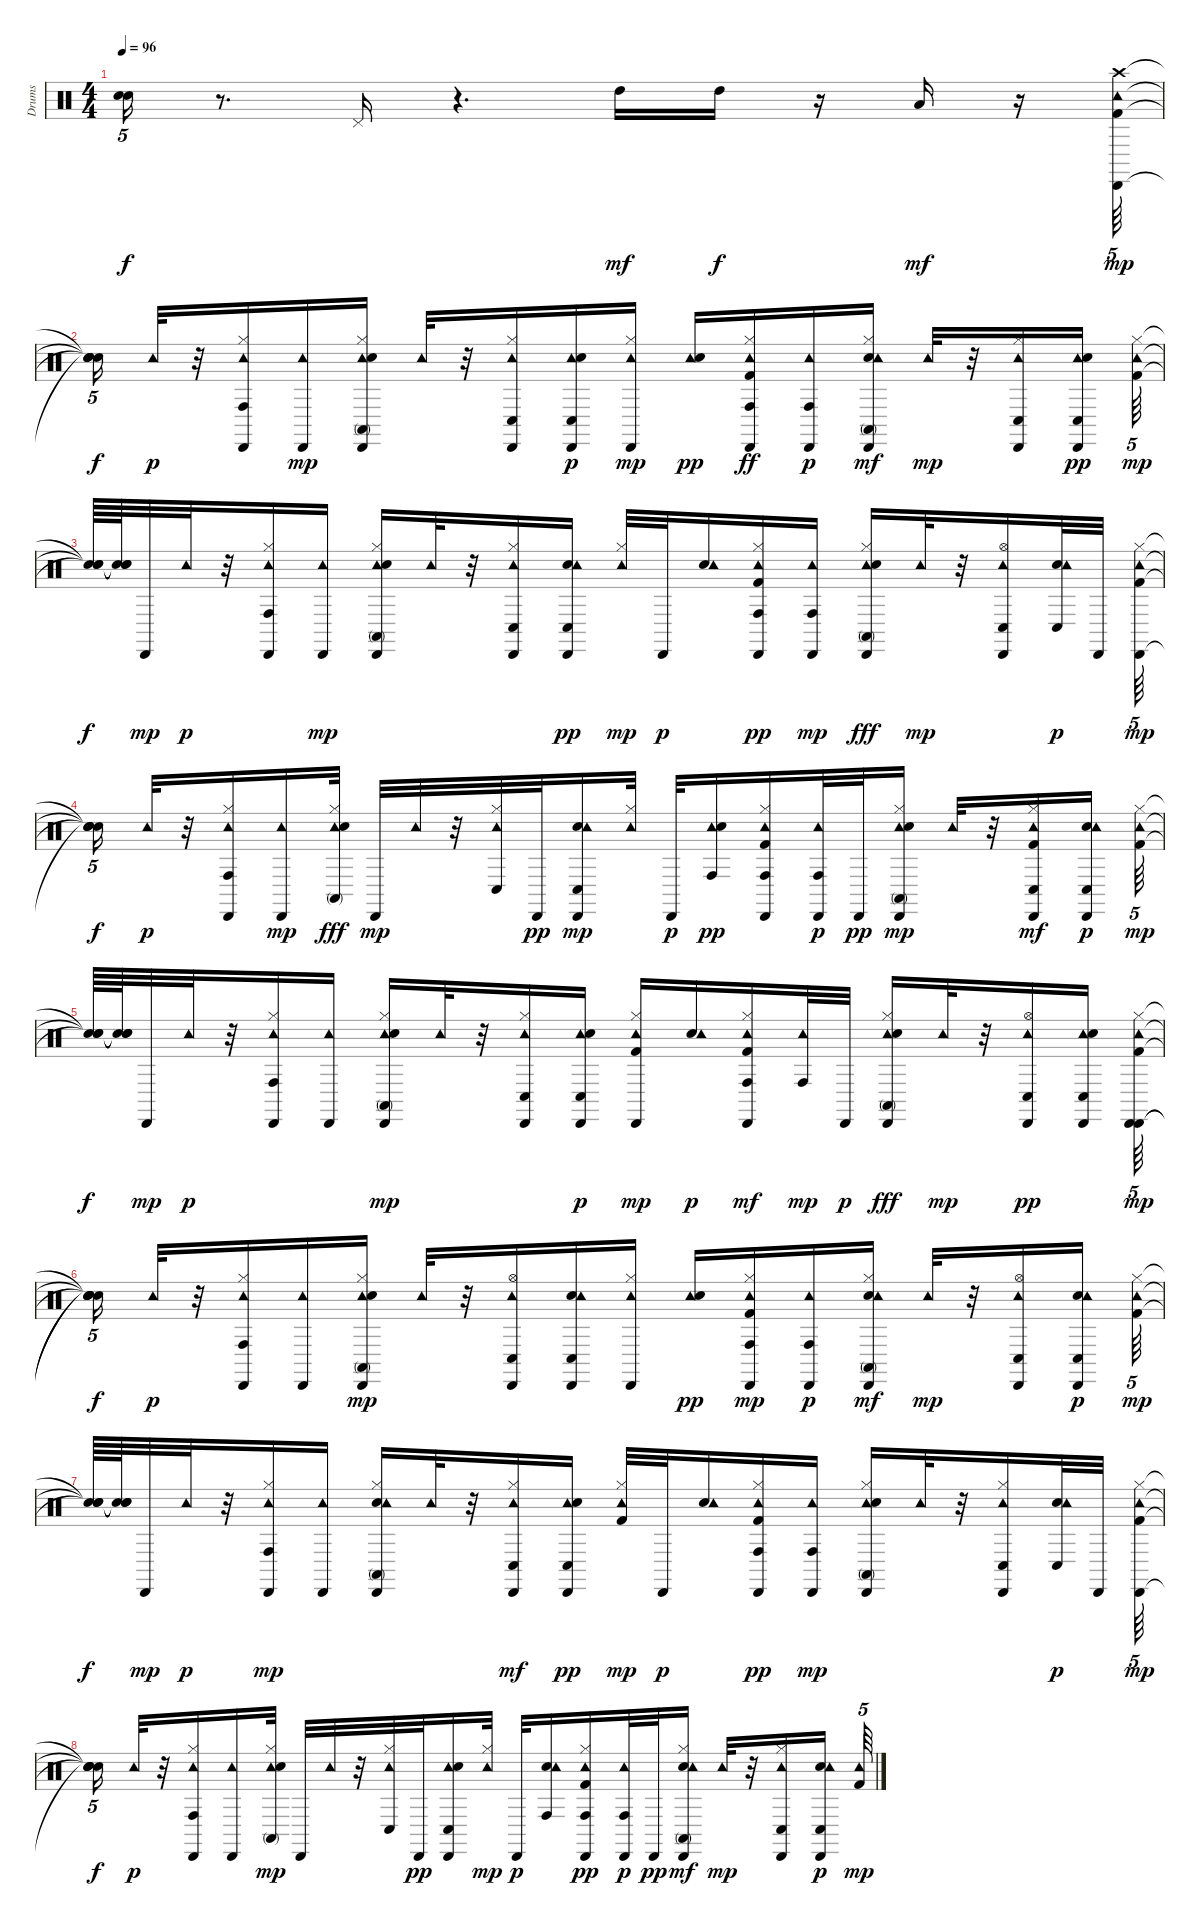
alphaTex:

\track ("Drums" "Drums") {instrument percussion}
\staff {score}
\articulation defaults
\ts (4 4)
\tempo 96
\clef neutral
\ks c
("Snare (hit)"{t} "Snare (hit)"{t}).16{tu (5 4) dy f} r.8{d} "Pedal Hi-Hat (hit)".16 r.4{d} "High Tom (hit)".16{dy mf} "High Tom (hit)".16{dy f} r.16 "Low Tom (hit)".16{dy mf} r.16 ("Kick (hit) 2" "Cabasa (hit)" "Tambourine (hit)" "Crash high (hit)").64{tu (5 4) dy mp} |
("Snare (hit)"{t} "Snare (hit)"{t} "Snare (hit)"{t} "Snare (hit)"{t}).16{tu (5 4) dy f} "Tambourine (hit)".32{dy p} r.32 ("Conga high (hit)" "Tambourine (hit)" "Hi-Hat (closed)" "Cabasa (hit)").16 ("Cabasa (hit)" "Tambourine (hit)").16{dy mp} ("Hi-Hat (closed)" "Tambourine (hit)" "Snare (hit) 2" "Cabasa (hit)" "Conga high (mute)").16 "Tambourine (hit)".32 r.32 ("Cabasa (hit)" "Tambourine (hit)" "Hi-Hat (closed)" "Conga low (hit)").16 ("Cabasa (hit)" "Tambourine (hit)" "Electric Snare (hit)" "Conga low (hit)").16{dy p} ("Cabasa (hit)" "Tambourine (hit)" "Hi-Hat (closed)").16{dy mp} ("Tambourine (hit)" "Electric Snare (hit)").16{dy pp} ("Cabasa (hit)" "Tambourine (hit)" "Hi-Hat (closed)" "Conga high (hit)" "Kick (hit) 2").16{dy ff} ("Conga high (hit)" "Tambourine (hit)" "Cabasa (hit)").16{dy p} ("Hi-Hat (closed)" "Conga high (mute)" "Cabasa (hit)" "Snare (hit) 2" "Tambourine (hit)").16{dy mf} "Tambourine (hit)".32{dy mp} r.32 ("Conga low (hit)" "Cabasa (hit)" "Hi-Hat (closed)" "Tambourine (hit)").16 ("Cabasa (hit)" "Conga low (hit)" "Tambourine (hit)" "Electric Snare (hit)").16{dy pp beam splitsecondary} ("Hi-Hat (closed)" "Kick (hit) 2" "Tambourine (hit)").64{tu (5 4) dy mp} |
("Snare (hit)"{t} "Snare (hit)"{t} "Snare (hit)"{t}).64{dy f} ("Snare (hit)"{t} "Snare (hit)"{t} "Snare (hit)"{t}).64 "Cabasa (hit)".32{dy mp} "Tambourine (hit)".32{dy p} r.32 ("Cabasa (hit)" "Hi-Hat (closed)" "Tambourine (hit)" "Conga high (hit)").16 ("Cabasa (hit)" "Tambourine (hit)").16{dy mp} ("Tambourine (hit)" "Snare (hit) 2" "Hi-Hat (closed)" "Conga high (mute)" "Cabasa (hit)").16 "Tambourine (hit)".32 r.32 ("Cabasa (hit)" "Hi-Hat (closed)" "Tambourine (hit)" "Conga low (hit)").16 ("Electric Snare (hit)" "Tambourine (hit)" "Conga low (hit)" "Cabasa (hit)").16{dy pp} ("Hi-Hat (closed)" "Tambourine (hit)").32{dy mp} "Cabasa (hit)".32{dy p} ("Electric Snare (hit)" "Tambourine (hit)").16 ("Tambourine (hit)" "Conga high (hit)" "Kick (hit) 2" "Hi-Hat (closed)" "Cabasa (hit)").16{dy pp} ("Cabasa (hit)" "Tambourine (hit)" "Conga high (hit)").16{dy mp} ("Cabasa (hit)" "Tambourine (hit)" "Conga high (mute)" "Snare (hit) 2" "Hi-Hat (closed)").16{dy fff} "Tambourine (hit)".32{dy mp} r.32 ("Cabasa (hit)" "Tambourine (hit)" "Hi-Hat (open)" "Conga low (hit)").16 ("Electric Snare (hit)" "Tambourine (hit)" "Conga low (hit)").32{dy p} "Cabasa (hit)".32 ("Cabasa (hit)" "Kick (hit) 2" "Tambourine (hit)" "Hi-Hat (closed)").64{tu (5 4) dy mp} |
("Snare (hit)"{t} "Snare (hit)"{t} "Snare (hit)"{t} "Snare (hit)"{t}).16{tu (5 4) dy f} "Tambourine (hit)".32{dy p} r.32 ("Tambourine (hit)" "Hi-Hat (closed)" "Conga high (hit)" "Cabasa (hit)").16 ("Cabasa (hit)" "Tambourine (hit)").16{dy mp} ("Conga high (mute)" "Hi-Hat (closed)" "Tambourine (hit)" "Snare (hit) 2").32{dy fff} "Cabasa (hit)".32{dy mp} "Tambourine (hit)".32 r.32 ("Tambourine (hit)" "Hi-Hat (closed)" "Conga low (hit)").32 "Cabasa (hit)".32{dy pp} ("Conga low (hit)" "Electric Snare (hit)" "Cabasa (hit)" "Tambourine (hit)").16{dy mp} ("Hi-Hat (closed)" "Tambourine (hit)").32 "Cabasa (hit)".32{dy p} ("Tambourine (hit)" "Conga high (hit)" "Electric Snare (hit)").16{dy pp} ("Conga high (hit)" "Hi-Hat (closed)" "Kick (hit) 2" "Tambourine (hit)" "Cabasa (hit)").16 ("Tambourine (hit)" "Conga high (hit)" "Cabasa (hit)").32{dy p} "Cabasa (hit)".32{dy pp} ("Cabasa (hit)" "Tambourine (hit)" "Snare (hit) 2" "Hi-Hat (closed)" "Conga high (mute)").16{dy mp} "Tambourine (hit)".32 r.32 ("Cabasa (hit)" "Tambourine (hit)" "Conga low (hit)" "Kick (hit) 2" "Hi-Hat (closed)").16{dy mf} ("Electric Snare (hit)" "Tambourine (hit)" "Cabasa (hit)" "Conga low (hit)").16{dy p beam splitsecondary} ("Hi-Hat (closed)" "Kick (hit) 2" "Tambourine (hit)").64{tu (5 4) dy mp} |
("Snare (hit)"{t} "Snare (hit)"{t} "Snare (hit)"{t}).64{dy f} ("Snare (hit)"{t} "Snare (hit)"{t} "Snare (hit)"{t}).64 "Cabasa (hit)".32{dy mp} "Tambourine (hit)".32{dy p} r.32 ("Cabasa (hit)" "Tambourine (hit)" "Hi-Hat (closed)" "Conga high (hit)").16 ("Tambourine (hit)" "Cabasa (hit)").16 ("Tambourine (hit)" "Snare (hit) 2" "Hi-Hat (closed)" "Conga high (mute)" "Cabasa (hit)").16{dy mp} "Tambourine (hit)".32 r.32 ("Cabasa (hit)" "Hi-Hat (closed)" "Tambourine (hit)" "Conga low (hit)").16 ("Cabasa (hit)" "Tambourine (hit)" "Electric Snare (hit)" "Conga low (hit)").16{dy p} ("Cabasa (hit)" "Hi-Hat (closed)" "Kick (hit) 2" "Tambourine (hit)").16{dy mp} ("Electric Snare (hit)" "Tambourine (hit)").16{dy p} ("Conga high (hit)" "Tambourine (hit)" "Kick (hit) 2" "Cabasa (hit)" "Hi-Hat (closed)").16{dy mf} ("Tambourine (hit)" "Conga high (hit)").32{dy mp} "Cabasa (hit)".32{dy p} ("Cabasa (hit)" "Tambourine (hit)" "Hi-Hat (closed)" "Conga high (mute)" "Snare (hit) 2").16{dy fff} "Tambourine (hit)".32{dy mp} r.32 ("Conga low (hit)" "Tambourine (hit)" "Hi-Hat (open)" "Cabasa (hit)").16{dy pp} ("Tambourine (hit)" "Cabasa (hit)" "Conga low (hit)" "Electric Snare (hit)").16 ("Cabasa (hit)" "Hi-Hat (closed)" "Kick (hit) 2" "Cabasa (hit)" "Tambourine (hit)").64{tu (5 4) dy mp} |
("Snare (hit)"{t} "Snare (hit)"{t} "Snare (hit)"{t} "Snare (hit)"{t} "Snare (hit)"{t}).16{tu (5 4) dy f} "Tambourine (hit)".32{dy p} r.32 ("Hi-Hat (closed)" "Conga high (hit)" "Tambourine (hit)" "Cabasa (hit)").16 ("Tambourine (hit)" "Cabasa (hit)").16 ("Tambourine (hit)" "Hi-Hat (closed)" "Snare (hit) 2" "Cabasa (hit)" "Conga high (mute)").16{dy mp} "Tambourine (hit)".32 r.32 ("Cabasa (hit)" "Tambourine (hit)" "Hi-Hat (open)" "Conga low (hit)").16 ("Cabasa (hit)" "Conga low (hit)" "Electric Snare (hit)" "Tambourine (hit)").16 ("Cabasa (hit)" "Hi-Hat (closed)" "Tambourine (hit)").16 ("Tambourine (hit)" "Electric Snare (hit)").16{dy pp} ("Cabasa (hit)" "Conga high (hit)" "Hi-Hat (closed)" "Kick (hit) 2" "Tambourine (hit)").16{dy mp} ("Tambourine (hit)" "Conga high (hit)" "Cabasa (hit)").16{dy p} ("Hi-Hat (closed)" "Cabasa (hit)" "Snare (hit) 2" "Conga high (mute)" "Tambourine (hit)").16{dy mf} "Tambourine (hit)".32{dy mp} r.32 ("Cabasa (hit)" "Hi-Hat (open)" "Tambourine (hit)" "Conga low (hit)").16 ("Cabasa (hit)" "Electric Snare (hit)" "Tambourine (hit)" "Conga low (hit)").16{dy p beam splitsecondary} ("Hi-Hat (closed)" "Kick (hit) 2" "Tambourine (hit)").64{tu (5 4) dy mp} |
("Snare (hit)"{t} "Snare (hit)"{t} "Snare (hit)"{t}).64{dy f} ("Snare (hit)"{t} "Snare (hit)"{t} "Snare (hit)"{t}).64 "Cabasa (hit)".32{dy mp} "Tambourine (hit)".32{dy p} r.32 ("Cabasa (hit)" "Conga high (hit)" "Hi-Hat (closed)" "Tambourine (hit)").16{dy mp} ("Cabasa (hit)" "Tambourine (hit)").16 ("Hi-Hat (closed)" "Snare (hit) 2" "Conga high (mute)" "Tambourine (hit)" "Cabasa (hit)").16 "Tambourine (hit)".32 r.32 ("Cabasa (hit)" "Tambourine (hit)" "Conga low (hit)" "Hi-Hat (closed)").16{dy mf} ("Tambourine (hit)" "Conga low (hit)" "Electric Snare (hit)" "Cabasa (hit)").16{dy pp} ("Kick (hit) 2" "Tambourine (hit)" "Hi-Hat (closed)").32{dy mp} "Cabasa (hit)".32{dy p} ("Electric Snare (hit)" "Tambourine (hit)").16 ("Conga high (hit)" "Kick (hit) 2" "Hi-Hat (closed)" "Tambourine (hit)" "Cabasa (hit)").16{dy pp} ("Cabasa (hit)" "Tambourine (hit)" "Conga high (hit)").16{dy mp} ("Cabasa (hit)" "Tambourine (hit)" "Hi-Hat (closed)" "Snare (hit) 2" "Conga high (mute)").16 "Tambourine (hit)".32 r.32 ("Cabasa (hit)" "Hi-Hat (closed)" "Tambourine (hit)" "Conga low (hit)").16 ("Electric Snare (hit)" "Tambourine (hit)" "Conga low (hit)").32{dy p} "Cabasa (hit)".32 ("Cabasa (hit)" "Hi-Hat (closed)" "Kick (hit) 2" "Tambourine (hit)").64{tu (5 4) dy mp} |
("Snare (hit)"{t} "Snare (hit)"{t} "Snare (hit)"{t} "Snare (hit)"{t}).16{tu (5 4) dy f} "Tambourine (hit)".32{dy p} r.32 ("Hi-Hat (closed)" "Conga high (hit)" "Tambourine (hit)" "Cabasa (hit)").16 ("Tambourine (hit)" "Cabasa (hit)").16 ("Tambourine (hit)" "Hi-Hat (closed)" "Snare (hit) 2" "Conga high (mute)").32{dy mp} "Cabasa (hit)".32 "Tambourine (hit)".32 r.32 ("Conga low (hit)" "Hi-Hat (closed)" "Tambourine (hit)").32 "Cabasa (hit)".32{dy pp} ("Tambourine (hit)" "Conga low (hit)" "Electric Snare (hit)" "Cabasa (hit)").16 ("Hi-Hat (closed)" "Tambourine (hit)").32{dy mp} "Cabasa (hit)".32{dy p} ("Conga high (hit)" "Electric Snare (hit)" "Tambourine (hit)").16 ("Tambourine (hit)" "Kick (hit) 2" "Conga high (hit)" "Hi-Hat (closed)" "Cabasa (hit)").16{dy pp} ("Conga high (hit)" "Tambourine (hit)" "Cabasa (hit)").32{dy p} "Cabasa (hit)".32{dy pp} ("Cabasa (hit)" "Conga high (mute)" "Snare (hit) 2" "Hi-Hat (closed)" "Tambourine (hit)").16{dy mf} "Tambourine (hit)".32{dy mp} r.32 ("Cabasa (hit)" "Conga low (hit)" "Hi-Hat (closed)" "Tambourine (hit)").16 ("Electric Snare (hit)" "Conga low (hit)" "Tambourine (hit)" "Cabasa (hit)").16{dy p beam splitsecondary} ("Kick (hit) 2" "Tambourine (hit)").64{tu (5 4) dy mp}
